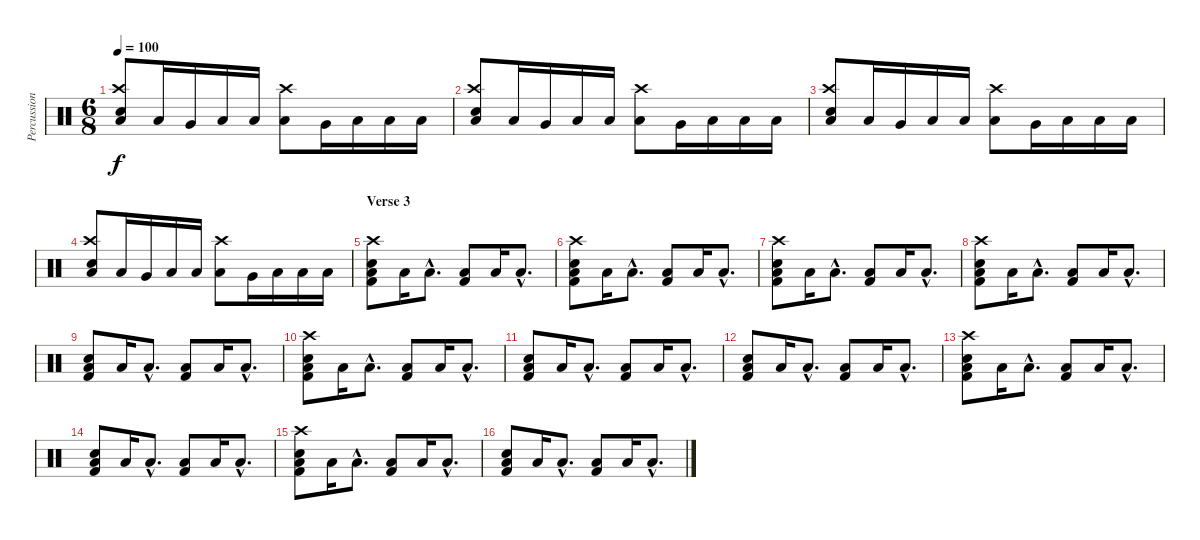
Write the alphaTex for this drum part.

\track ("Percussion" "Percussion") {instrument percussion}
\staff {score}
\articulation defaults
\ts (6 8)
\tempo 100
\clef neutral
\ks c
("Snare (hit) 2" "Crash high (hit)" "Low Floor Tom (hit)").8{dy f} "Low Floor Tom (hit)".16 "Very Low Tom (hit)".16 "Low Tom (hit)".16 "Low Floor Tom (hit)".16 ("Crash high (hit)" "Low Floor Tom (hit)").8 "Very Low Tom (hit)".16 "Low Tom (hit)".16 "Low Floor Tom (hit)".16 "Low Floor Tom (hit)".16 |
("Snare (hit) 2" "Crash high (hit)" "Low Floor Tom (hit)").8 "Low Floor Tom (hit)".16 "Very Low Tom (hit)".16 "Low Tom (hit)".16 "Low Floor Tom (hit)".16 ("Crash high (hit)" "Low Floor Tom (hit)").8 "Very Low Tom (hit)".16 "Low Tom (hit)".16 "Low Floor Tom (hit)".16 "Low Floor Tom (hit)".16 |
("Snare (hit) 2" "Crash high (hit)" "Low Floor Tom (hit)").8 "Low Floor Tom (hit)".16 "Very Low Tom (hit)".16 "Low Tom (hit)".16 "Low Floor Tom (hit)".16 ("Crash high (hit)" "Low Floor Tom (hit)").8 "Very Low Tom (hit)".16 "Low Tom (hit)".16 "Low Floor Tom (hit)".16 "Low Floor Tom (hit)".16 |
("Snare (hit) 2" "Crash high (hit)" "Low Floor Tom (hit)").8 "Low Floor Tom (hit)".16 "Very Low Tom (hit)".16 "Low Tom (hit)".16 "Low Floor Tom (hit)".16 ("Crash high (hit)" "Low Floor Tom (hit)").8 "Very Low Tom (hit)".16 "Low Tom (hit)".16 "Low Floor Tom (hit)".16 "Low Floor Tom (hit)".16 |
\section ("" "Verse 3")
("Crash high (hit)" "Electric Snare (hit)" "Low Floor Tom (hit)" "Kick (hit) 2").8 "Low Floor Tom (hit)".16 "Low Floor Tom (hit)"{hac}.8{d} ("Low Floor Tom (hit)" "Kick (hit) 2").8 "Low Floor Tom (hit)".16 "Low Floor Tom (hit)"{hac}.8{d} |
("Crash high (hit)" "Electric Snare (hit)" "Low Floor Tom (hit)" "Kick (hit) 2").8 "Low Floor Tom (hit)".16 "Low Floor Tom (hit)"{hac}.8{d} ("Low Floor Tom (hit)" "Kick (hit) 2").8 "Low Floor Tom (hit)".16 "Low Floor Tom (hit)"{hac}.8{d} |
("Crash high (hit)" "Electric Snare (hit)" "Low Floor Tom (hit)" "Kick (hit) 2").8 "Low Floor Tom (hit)".16 "Low Floor Tom (hit)"{hac}.8{d} ("Low Floor Tom (hit)" "Kick (hit) 2").8 "Low Floor Tom (hit)".16 "Low Floor Tom (hit)"{hac}.8{d} |
("Crash high (hit)" "Electric Snare (hit)" "Low Floor Tom (hit)" "Kick (hit) 2").8 "Low Floor Tom (hit)".16 "Low Floor Tom (hit)"{hac}.8{d} ("Low Floor Tom (hit)" "Kick (hit) 2").8 "Low Floor Tom (hit)".16 "Low Floor Tom (hit)"{hac}.8{d} |
("Electric Snare (hit)" "Low Floor Tom (hit)" "Kick (hit) 2").8 "Low Floor Tom (hit)".16 "Low Floor Tom (hit)"{hac}.8{d} ("Low Floor Tom (hit)" "Kick (hit) 2").8 "Low Floor Tom (hit)".16 "Low Floor Tom (hit)"{hac}.8{d} |
("Crash high (hit)" "Electric Snare (hit)" "Low Floor Tom (hit)" "Kick (hit) 2").8 "Low Floor Tom (hit)".16 "Low Floor Tom (hit)"{hac}.8{d} ("Low Floor Tom (hit)" "Kick (hit) 2").8 "Low Floor Tom (hit)".16 "Low Floor Tom (hit)"{hac}.8{d} |
("Electric Snare (hit)" "Low Floor Tom (hit)" "Kick (hit) 2").8 "Low Floor Tom (hit)".16 "Low Floor Tom (hit)"{hac}.8{d} ("Low Floor Tom (hit)" "Kick (hit) 2").8 "Low Floor Tom (hit)".16 "Low Floor Tom (hit)"{hac}.8{d} |
("Electric Snare (hit)" "Low Floor Tom (hit)" "Kick (hit) 2").8 "Low Floor Tom (hit)".16 "Low Floor Tom (hit)"{hac}.8{d} ("Low Floor Tom (hit)" "Kick (hit) 2").8 "Low Floor Tom (hit)".16 "Low Floor Tom (hit)"{hac}.8{d} |
("Crash high (hit)" "Electric Snare (hit)" "Low Floor Tom (hit)" "Kick (hit) 2").8 "Low Floor Tom (hit)".16 "Low Floor Tom (hit)"{hac}.8{d} ("Low Floor Tom (hit)" "Kick (hit) 2").8 "Low Floor Tom (hit)".16 "Low Floor Tom (hit)"{hac}.8{d} |
("Electric Snare (hit)" "Low Floor Tom (hit)" "Kick (hit) 2").8 "Low Floor Tom (hit)".16 "Low Floor Tom (hit)"{hac}.8{d} ("Low Floor Tom (hit)" "Kick (hit) 2").8 "Low Floor Tom (hit)".16 "Low Floor Tom (hit)"{hac}.8{d} |
("Crash high (hit)" "Electric Snare (hit)" "Low Floor Tom (hit)" "Kick (hit) 2").8 "Low Floor Tom (hit)".16 "Low Floor Tom (hit)"{hac}.8{d} ("Low Floor Tom (hit)" "Kick (hit) 2").8 "Low Floor Tom (hit)".16 "Low Floor Tom (hit)"{hac}.8{d} |
("Electric Snare (hit)" "Low Floor Tom (hit)" "Kick (hit) 2").8 "Low Floor Tom (hit)".16 "Low Floor Tom (hit)"{hac}.8{d} ("Low Floor Tom (hit)" "Kick (hit) 2").8 "Low Floor Tom (hit)".16 "Low Floor Tom (hit)"{hac}.8{d}
